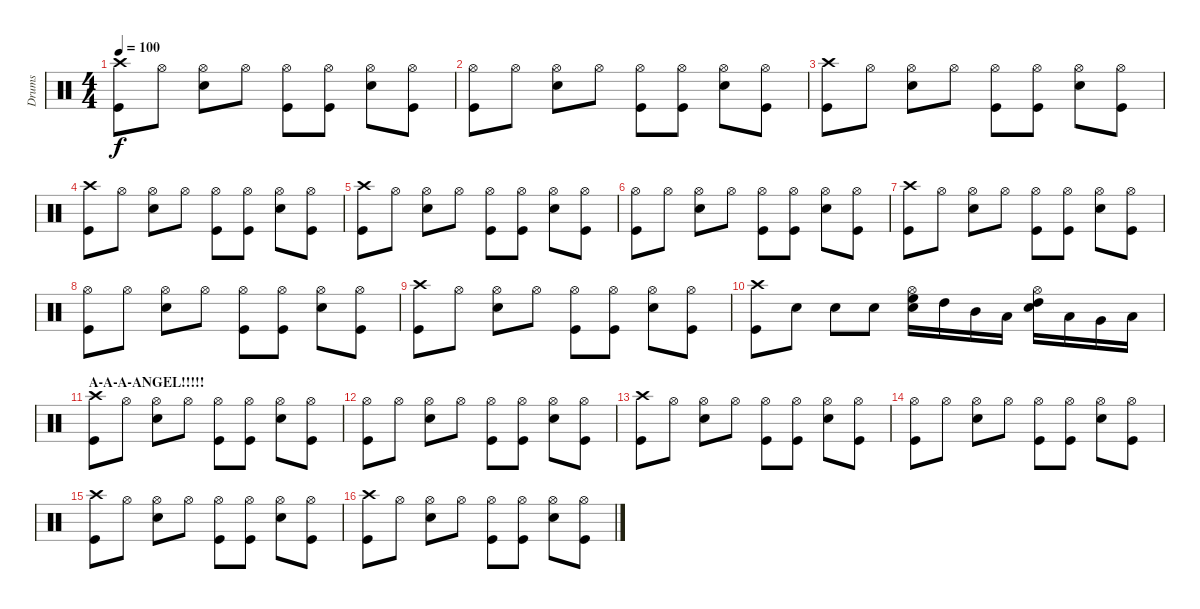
\track ("Drums" "Drums") {instrument percussion}
\staff {score}
\articulation defaults
\ts (4 4)
\tempo 100
\clef neutral
\ks c
("Crash high (hit)" "Kick (hit)").8{dy f} "Hi-Hat (open)".8 ("Hi-Hat (open)" "Snare (hit) 2").8 "Hi-Hat (open)".8 ("Hi-Hat (open)" "Kick (hit)").8 ("Hi-Hat (open)" "Kick (hit)").8 ("Hi-Hat (open)" "Snare (hit) 2").8 ("Hi-Hat (open)" "Kick (hit)").8 |
("Hi-Hat (open)" "Kick (hit)").8 "Hi-Hat (open)".8 ("Hi-Hat (open)" "Snare (hit) 2").8 "Hi-Hat (open)".8 ("Hi-Hat (open)" "Kick (hit)").8 ("Hi-Hat (open)" "Kick (hit)").8 ("Hi-Hat (open)" "Snare (hit) 2").8 ("Hi-Hat (open)" "Kick (hit)").8 |
("Crash high (hit)" "Kick (hit)").8 "Hi-Hat (open)".8 ("Hi-Hat (open)" "Snare (hit) 2").8 "Hi-Hat (open)".8 ("Hi-Hat (open)" "Kick (hit)").8 ("Hi-Hat (open)" "Kick (hit)").8 ("Hi-Hat (open)" "Snare (hit) 2").8 ("Hi-Hat (open)" "Kick (hit)").8 |
("Crash high (hit)" "Kick (hit)").8 "Hi-Hat (open)".8 ("Hi-Hat (open)" "Snare (hit) 2").8 "Hi-Hat (open)".8 ("Hi-Hat (open)" "Kick (hit)").8 ("Hi-Hat (open)" "Kick (hit)").8 ("Hi-Hat (open)" "Snare (hit) 2").8 ("Hi-Hat (open)" "Kick (hit)").8 |
("Crash high (hit)" "Kick (hit)").8 "Hi-Hat (open)".8 ("Hi-Hat (open)" "Snare (hit) 2").8 "Hi-Hat (open)".8 ("Hi-Hat (open)" "Kick (hit)").8 ("Hi-Hat (open)" "Kick (hit)").8 ("Hi-Hat (open)" "Snare (hit) 2").8 ("Hi-Hat (open)" "Kick (hit)").8 |
("Hi-Hat (open)" "Kick (hit)").8 "Hi-Hat (open)".8 ("Hi-Hat (open)" "Snare (hit) 2").8 "Hi-Hat (open)".8 ("Hi-Hat (open)" "Kick (hit)").8 ("Hi-Hat (open)" "Kick (hit)").8 ("Hi-Hat (open)" "Snare (hit) 2").8 ("Hi-Hat (open)" "Kick (hit)").8 |
("Crash high (hit)" "Kick (hit)").8 "Hi-Hat (open)".8 ("Hi-Hat (open)" "Snare (hit) 2").8 "Hi-Hat (open)".8 ("Hi-Hat (open)" "Kick (hit)").8 ("Hi-Hat (open)" "Kick (hit)").8 ("Hi-Hat (open)" "Snare (hit) 2").8 ("Hi-Hat (open)" "Kick (hit)").8 |
("Hi-Hat (open)" "Kick (hit)").8 "Hi-Hat (open)".8 ("Hi-Hat (open)" "Snare (hit) 2").8 "Hi-Hat (open)".8 ("Hi-Hat (open)" "Kick (hit)").8 ("Hi-Hat (open)" "Kick (hit)").8 ("Hi-Hat (open)" "Snare (hit) 2").8 ("Hi-Hat (open)" "Kick (hit)").8 |
("Crash high (hit)" "Kick (hit)").8 "Hi-Hat (open)".8 ("Hi-Hat (open)" "Snare (hit) 2").8 "Hi-Hat (open)".8 ("Hi-Hat (open)" "Kick (hit)").8 ("Hi-Hat (open)" "Kick (hit)").8 ("Hi-Hat (open)" "Snare (hit) 2").8 ("Hi-Hat (open)" "Kick (hit)").8 |
("Crash high (hit)" "Kick (hit)").8 "Snare (hit) 2".8 "Snare (hit) 2".8 "Snare (hit) 2".8 ("Hi-Hat (open)" "Snare (hit) 2" "High Floor Tom (hit)").16 "High Tom (hit)".16 "Mid Tom (hit)".16 "Low Tom (hit)".16 ("Hi-Hat (open)" "Snare (hit) 2" "High Tom (hit)").16 "Low Tom (hit)".16 "Very Low Tom (hit)".16 "Low Floor Tom (hit)".16 |
\section ("" "A-A-A-ANGEL!!!!!")
("Crash high (hit)" "Kick (hit)").8 "Hi-Hat (open)".8 ("Hi-Hat (open)" "Snare (hit) 2").8 "Hi-Hat (open)".8 ("Hi-Hat (open)" "Kick (hit)").8 ("Hi-Hat (open)" "Kick (hit)").8 ("Hi-Hat (open)" "Snare (hit) 2").8 ("Hi-Hat (open)" "Kick (hit)").8 |
("Hi-Hat (open)" "Kick (hit)").8 "Hi-Hat (open)".8 ("Hi-Hat (open)" "Snare (hit) 2").8 "Hi-Hat (open)".8 ("Hi-Hat (open)" "Kick (hit)").8 ("Hi-Hat (open)" "Kick (hit)").8 ("Hi-Hat (open)" "Snare (hit) 2").8 ("Hi-Hat (open)" "Kick (hit)").8 |
("Crash high (hit)" "Kick (hit)").8 "Hi-Hat (open)".8 ("Hi-Hat (open)" "Snare (hit) 2").8 "Hi-Hat (open)".8 ("Hi-Hat (open)" "Kick (hit)").8 ("Hi-Hat (open)" "Kick (hit)").8 ("Hi-Hat (open)" "Snare (hit) 2").8 ("Hi-Hat (open)" "Kick (hit)").8 |
("Hi-Hat (open)" "Kick (hit)").8 "Hi-Hat (open)".8 ("Hi-Hat (open)" "Snare (hit) 2").8 "Hi-Hat (open)".8 ("Hi-Hat (open)" "Kick (hit)").8 ("Hi-Hat (open)" "Kick (hit)").8 ("Hi-Hat (open)" "Snare (hit) 2").8 ("Hi-Hat (open)" "Kick (hit)").8 |
("Crash high (hit)" "Kick (hit)").8 "Hi-Hat (open)".8 ("Hi-Hat (open)" "Snare (hit) 2").8 "Hi-Hat (open)".8 ("Hi-Hat (open)" "Kick (hit)").8 ("Hi-Hat (open)" "Kick (hit)").8 ("Hi-Hat (open)" "Snare (hit) 2").8 ("Hi-Hat (open)" "Kick (hit)").8 |
("Crash high (hit)" "Kick (hit)").8 "Hi-Hat (open)".8 ("Hi-Hat (open)" "Snare (hit) 2").8 "Hi-Hat (open)".8 ("Hi-Hat (open)" "Kick (hit)").8 ("Hi-Hat (open)" "Kick (hit)").8 ("Hi-Hat (open)" "Snare (hit) 2").8 ("Hi-Hat (open)" "Kick (hit)").8
